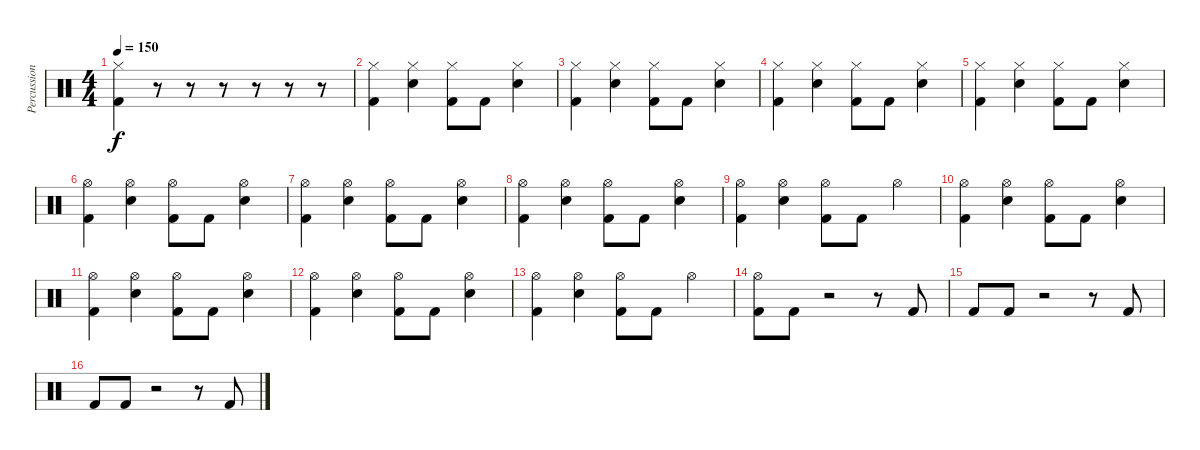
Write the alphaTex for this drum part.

\track ("Percussions" "Percussion") {instrument percussion}
\staff {score}
\articulation defaults
\ts (4 4)
\tempo 150
\clef neutral
\ks c
("Kick (hit) 2" "Hi-Hat (closed)").4{dy f} r.8 r.8 r.8 r.8 r.8 r.8 |
("Kick (hit) 2" "Hi-Hat (closed)").4 ("Electric Snare (hit)" "Hi-Hat (closed)").4 ("Kick (hit) 2" "Hi-Hat (closed)").8 "Kick (hit) 2".8 ("Electric Snare (hit)" "Hi-Hat (closed)").4 |
("Kick (hit) 2" "Hi-Hat (closed)").4 ("Electric Snare (hit)" "Hi-Hat (closed)").4 ("Kick (hit) 2" "Hi-Hat (closed)").8 "Kick (hit) 2".8 ("Electric Snare (hit)" "Hi-Hat (closed)").4 |
("Kick (hit) 2" "Hi-Hat (closed)").4 ("Electric Snare (hit)" "Hi-Hat (closed)").4 ("Kick (hit) 2" "Hi-Hat (closed)").8 "Kick (hit) 2".8 ("Electric Snare (hit)" "Hi-Hat (closed)").4 |
("Kick (hit) 2" "Hi-Hat (closed)").4 ("Electric Snare (hit)" "Hi-Hat (closed)").4 ("Kick (hit) 2" "Hi-Hat (closed)").8 "Kick (hit) 2".8 ("Electric Snare (hit)" "Hi-Hat (closed)").4 |
("Kick (hit) 2" "Hi-Hat (open)").4 ("Electric Snare (hit)" "Hi-Hat (open)").4 ("Kick (hit) 2" "Hi-Hat (open)").8 "Kick (hit) 2".8 ("Electric Snare (hit)" "Hi-Hat (open)").4 |
("Kick (hit) 2" "Hi-Hat (open)").4 ("Electric Snare (hit)" "Hi-Hat (open)").4 ("Kick (hit) 2" "Hi-Hat (open)").8 "Kick (hit) 2".8 ("Electric Snare (hit)" "Hi-Hat (open)").4 |
("Kick (hit) 2" "Hi-Hat (open)").4 ("Electric Snare (hit)" "Hi-Hat (open)").4 ("Kick (hit) 2" "Hi-Hat (open)").8 "Kick (hit) 2".8 ("Electric Snare (hit)" "Hi-Hat (open)").4 |
("Kick (hit) 2" "Hi-Hat (open)").4 ("Electric Snare (hit)" "Hi-Hat (open)").4 ("Kick (hit) 2" "Hi-Hat (open)").8 "Kick (hit) 2".8 "Hi-Hat (open)".4 |
("Kick (hit) 2" "Hi-Hat (open)").4 ("Electric Snare (hit)" "Hi-Hat (open)").4 ("Kick (hit) 2" "Hi-Hat (open)").8 "Kick (hit) 2".8 ("Electric Snare (hit)" "Hi-Hat (open)").4 |
("Kick (hit) 2" "Hi-Hat (open)").4 ("Electric Snare (hit)" "Hi-Hat (open)").4 ("Kick (hit) 2" "Hi-Hat (open)").8 "Kick (hit) 2".8 ("Electric Snare (hit)" "Hi-Hat (open)").4 |
("Kick (hit) 2" "Hi-Hat (open)").4 ("Electric Snare (hit)" "Hi-Hat (open)").4 ("Kick (hit) 2" "Hi-Hat (open)").8 "Kick (hit) 2".8 ("Electric Snare (hit)" "Hi-Hat (open)").4 |
("Kick (hit) 2" "Hi-Hat (open)").4 ("Electric Snare (hit)" "Hi-Hat (open)").4 ("Kick (hit) 2" "Hi-Hat (open)").8 "Kick (hit) 2".8 "Hi-Hat (open)".4 |
("Kick (hit) 2" "Hi-Hat (open)").8 "Kick (hit) 2".8 r.2 r.8 "Kick (hit) 2".8 |
"Kick (hit) 2".8 "Kick (hit) 2".8 r.2 r.8 "Kick (hit) 2".8 |
"Kick (hit) 2".8 "Kick (hit) 2".8 r.2 r.8 "Kick (hit) 2".8
